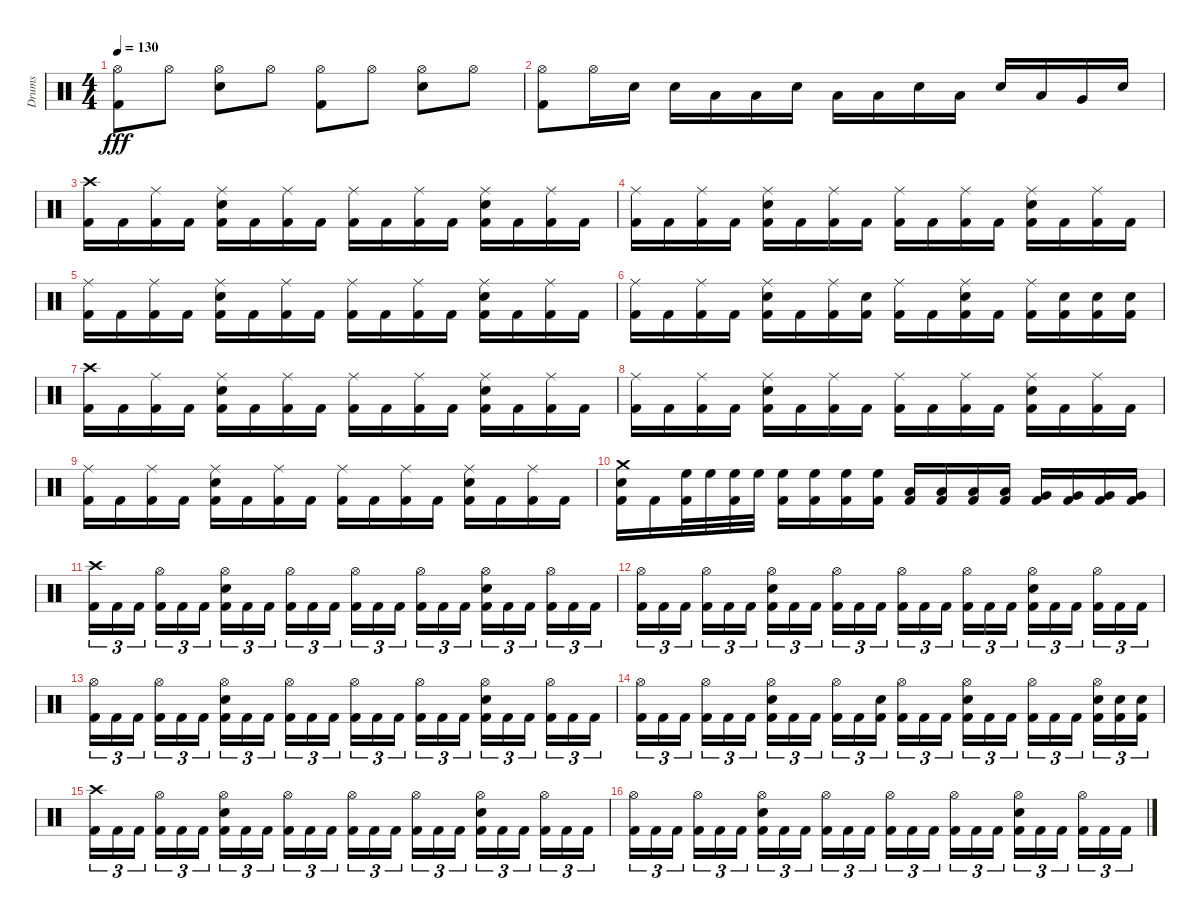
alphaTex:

\track ("Drums" "Drums") {instrument percussion}
\staff {score}
\articulation defaults
\ts (4 4)
\tempo 130
\clef neutral
\ks c
("Hi-Hat (open)" "Kick (hit) 2").8{dy fff} "Hi-Hat (open)".8 ("Hi-Hat (open)" "Snare (hit) 2").8 "Hi-Hat (open)".8 ("Hi-Hat (open)" "Kick (hit) 2").8 "Hi-Hat (open)".8 ("Hi-Hat (open)" "Snare (hit) 2").8 "Hi-Hat (open)".8 |
("Hi-Hat (open)" "Kick (hit) 2").8 "Hi-Hat (open)".16 "Snare (hit) 2".16 "Snare (hit) 2".16 "Low Tom (hit)".16 "Low Tom (hit)".16 "Snare (hit) 2".16 "Low Tom (hit)".16 "Low Tom (hit)".16 "Snare (hit) 2".16 "Low Tom (hit)".16 "Snare (hit) 2".16 "Low Tom (hit)".16 "Very Low Tom (hit)".16 "Snare (hit) 2".16 |
("Kick (hit) 2" "Crash high (hit)").16 "Kick (hit) 2".16 ("Kick (hit) 2" "Ride (middle)").16 "Kick (hit) 2".16 ("Kick (hit) 2" "Ride (middle)" "Snare (hit) 2").16 "Kick (hit) 2".16 ("Kick (hit) 2" "Ride (middle)").16 "Kick (hit) 2".16 ("Kick (hit) 2" "Ride (middle)").16 "Kick (hit) 2".16 ("Kick (hit) 2" "Ride (middle)").16 "Kick (hit) 2".16 ("Kick (hit) 2" "Ride (middle)" "Snare (hit) 2").16 "Kick (hit) 2".16 ("Kick (hit) 2" "Ride (middle)").16 "Kick (hit) 2".16 |
("Kick (hit) 2" "Ride (middle)").16 "Kick (hit) 2".16 ("Kick (hit) 2" "Ride (middle)").16 "Kick (hit) 2".16 ("Kick (hit) 2" "Ride (middle)" "Snare (hit) 2").16 "Kick (hit) 2".16 ("Kick (hit) 2" "Ride (middle)").16 "Kick (hit) 2".16 ("Kick (hit) 2" "Ride (middle)").16 "Kick (hit) 2".16 ("Kick (hit) 2" "Ride (middle)").16 "Kick (hit) 2".16 ("Kick (hit) 2" "Ride (middle)" "Snare (hit) 2").16 "Kick (hit) 2".16 ("Kick (hit) 2" "Ride (middle)").16 "Kick (hit) 2".16 |
("Kick (hit) 2" "Ride (middle)").16 "Kick (hit) 2".16 ("Kick (hit) 2" "Ride (middle)").16 "Kick (hit) 2".16 ("Kick (hit) 2" "Ride (middle)" "Snare (hit) 2").16 "Kick (hit) 2".16 ("Kick (hit) 2" "Ride (middle)").16 "Kick (hit) 2".16 ("Kick (hit) 2" "Ride (middle)").16 "Kick (hit) 2".16 ("Kick (hit) 2" "Ride (middle)").16 "Kick (hit) 2".16 ("Kick (hit) 2" "Ride (middle)" "Snare (hit) 2").16 "Kick (hit) 2".16 ("Kick (hit) 2" "Ride (middle)").16 "Kick (hit) 2".16 |
("Kick (hit) 2" "Ride (middle)").16 "Kick (hit) 2".16 ("Kick (hit) 2" "Ride (middle)").16 "Kick (hit) 2".16 ("Kick (hit) 2" "Ride (middle)" "Snare (hit) 2").16 "Kick (hit) 2".16 ("Kick (hit) 2" "Ride (middle)").16 ("Kick (hit) 2" "Snare (hit) 2").16 ("Kick (hit) 2" "Ride (middle)").16 "Kick (hit) 2".16 ("Kick (hit) 2" "Ride (middle)" "Snare (hit) 2").16 "Kick (hit) 2".16 ("Kick (hit) 2" "Ride (middle)").16 ("Kick (hit) 2" "Snare (hit) 2").16 ("Kick (hit) 2" "Snare (hit) 2").16 ("Kick (hit) 2" "Snare (hit) 2").16 |
("Kick (hit) 2" "Crash high (hit)").16 "Kick (hit) 2".16 ("Kick (hit) 2" "Ride (middle)").16 "Kick (hit) 2".16 ("Kick (hit) 2" "Ride (middle)" "Snare (hit) 2").16 "Kick (hit) 2".16 ("Kick (hit) 2" "Ride (middle)").16 "Kick (hit) 2".16 ("Kick (hit) 2" "Ride (middle)").16 "Kick (hit) 2".16 ("Kick (hit) 2" "Ride (middle)").16 "Kick (hit) 2".16 ("Kick (hit) 2" "Ride (middle)" "Snare (hit) 2").16 "Kick (hit) 2".16 ("Kick (hit) 2" "Ride (middle)").16 "Kick (hit) 2".16 |
("Kick (hit) 2" "Ride (middle)").16 "Kick (hit) 2".16 ("Kick (hit) 2" "Ride (middle)").16 "Kick (hit) 2".16 ("Kick (hit) 2" "Ride (middle)" "Snare (hit) 2").16 "Kick (hit) 2".16 ("Kick (hit) 2" "Ride (middle)").16 "Kick (hit) 2".16 ("Kick (hit) 2" "Ride (middle)").16 "Kick (hit) 2".16 ("Kick (hit) 2" "Ride (middle)").16 "Kick (hit) 2".16 ("Kick (hit) 2" "Ride (middle)" "Snare (hit) 2").16 "Kick (hit) 2".16 ("Kick (hit) 2" "Ride (middle)").16 "Kick (hit) 2".16 |
("Kick (hit) 2" "Ride (middle)").16 "Kick (hit) 2".16 ("Kick (hit) 2" "Ride (middle)").16 "Kick (hit) 2".16 ("Kick (hit) 2" "Ride (middle)" "Snare (hit) 2").16 "Kick (hit) 2".16 ("Kick (hit) 2" "Ride (middle)").16 "Kick (hit) 2".16 ("Kick (hit) 2" "Ride (middle)").16 "Kick (hit) 2".16 ("Kick (hit) 2" "Ride (middle)").16 "Kick (hit) 2".16 ("Kick (hit) 2" "Ride (middle)" "Snare (hit) 2").16 "Kick (hit) 2".16 ("Kick (hit) 2" "Ride (middle)").16 "Kick (hit) 2".16 |
("Kick (hit) 2" "Crash medium (hit)" "Snare (hit) 2").16 "Kick (hit) 2".16 ("Kick (hit) 2" "High Floor Tom (hit)").32 "High Floor Tom (hit)".32 ("Kick (hit) 2" "High Floor Tom (hit)").32 "High Floor Tom (hit)".32 ("Kick (hit) 2" "High Floor Tom (hit)").16 ("Kick (hit) 2" "High Floor Tom (hit)").16 ("Kick (hit) 2" "High Floor Tom (hit)").16 ("Kick (hit) 2" "High Floor Tom (hit)").16 ("Kick (hit) 2" "Low Tom (hit)").16 ("Kick (hit) 2" "Low Tom (hit)").16 ("Kick (hit) 2" "Low Tom (hit)").16 ("Kick (hit) 2" "Low Tom (hit)").16 ("Kick (hit) 2" "Very Low Tom (hit)").16 ("Kick (hit) 2" "Very Low Tom (hit)").16 ("Kick (hit) 2" "Very Low Tom (hit)").16 ("Kick (hit) 2" "Very Low Tom (hit)").16 |
("Kick (hit) 2" "Crash high (hit)").16{tu (3 2)} "Kick (hit) 2".16{tu (3 2)} "Kick (hit) 2".16{tu (3 2) beam splitsecondary} ("Kick (hit) 2" "Hi-Hat (open)").16{tu (3 2)} "Kick (hit) 2".16{tu (3 2)} "Kick (hit) 2".16{tu (3 2)} ("Kick (hit) 2" "Hi-Hat (open)" "Snare (hit) 2").16{tu (3 2)} "Kick (hit) 2".16{tu (3 2)} "Kick (hit) 2".16{tu (3 2) beam splitsecondary} ("Kick (hit) 2" "Hi-Hat (open)").16{tu (3 2)} "Kick (hit) 2".16{tu (3 2)} "Kick (hit) 2".16{tu (3 2)} ("Kick (hit) 2" "Hi-Hat (open)").16{tu (3 2)} "Kick (hit) 2".16{tu (3 2)} "Kick (hit) 2".16{tu (3 2) beam splitsecondary} ("Kick (hit) 2" "Hi-Hat (open)").16{tu (3 2)} "Kick (hit) 2".16{tu (3 2)} "Kick (hit) 2".16{tu (3 2)} ("Kick (hit) 2" "Hi-Hat (open)" "Snare (hit) 2").16{tu (3 2)} "Kick (hit) 2".16{tu (3 2)} "Kick (hit) 2".16{tu (3 2) beam splitsecondary} ("Kick (hit) 2" "Hi-Hat (open)").16{tu (3 2)} "Kick (hit) 2".16{tu (3 2)} "Kick (hit) 2".16{tu (3 2)} |
("Kick (hit) 2" "Hi-Hat (open)").16{tu (3 2)} "Kick (hit) 2".16{tu (3 2)} "Kick (hit) 2".16{tu (3 2) beam splitsecondary} ("Kick (hit) 2" "Hi-Hat (open)").16{tu (3 2)} "Kick (hit) 2".16{tu (3 2)} "Kick (hit) 2".16{tu (3 2)} ("Kick (hit) 2" "Hi-Hat (open)" "Snare (hit) 2").16{tu (3 2)} "Kick (hit) 2".16{tu (3 2)} "Kick (hit) 2".16{tu (3 2) beam splitsecondary} ("Kick (hit) 2" "Hi-Hat (open)").16{tu (3 2)} "Kick (hit) 2".16{tu (3 2)} "Kick (hit) 2".16{tu (3 2)} ("Kick (hit) 2" "Hi-Hat (open)").16{tu (3 2)} "Kick (hit) 2".16{tu (3 2)} "Kick (hit) 2".16{tu (3 2) beam splitsecondary} ("Kick (hit) 2" "Hi-Hat (open)").16{tu (3 2)} "Kick (hit) 2".16{tu (3 2)} "Kick (hit) 2".16{tu (3 2)} ("Kick (hit) 2" "Hi-Hat (open)" "Snare (hit) 2").16{tu (3 2)} "Kick (hit) 2".16{tu (3 2)} "Kick (hit) 2".16{tu (3 2) beam splitsecondary} ("Kick (hit) 2" "Hi-Hat (open)").16{tu (3 2)} "Kick (hit) 2".16{tu (3 2)} "Kick (hit) 2".16{tu (3 2)} |
("Kick (hit) 2" "Hi-Hat (open)").16{tu (3 2)} "Kick (hit) 2".16{tu (3 2)} "Kick (hit) 2".16{tu (3 2) beam splitsecondary} ("Kick (hit) 2" "Hi-Hat (open)").16{tu (3 2)} "Kick (hit) 2".16{tu (3 2)} "Kick (hit) 2".16{tu (3 2)} ("Kick (hit) 2" "Hi-Hat (open)" "Snare (hit) 2").16{tu (3 2)} "Kick (hit) 2".16{tu (3 2)} "Kick (hit) 2".16{tu (3 2) beam splitsecondary} ("Kick (hit) 2" "Hi-Hat (open)").16{tu (3 2)} "Kick (hit) 2".16{tu (3 2)} "Kick (hit) 2".16{tu (3 2)} ("Kick (hit) 2" "Hi-Hat (open)").16{tu (3 2)} "Kick (hit) 2".16{tu (3 2)} "Kick (hit) 2".16{tu (3 2) beam splitsecondary} ("Kick (hit) 2" "Hi-Hat (open)").16{tu (3 2)} "Kick (hit) 2".16{tu (3 2)} "Kick (hit) 2".16{tu (3 2)} ("Kick (hit) 2" "Hi-Hat (open)" "Snare (hit) 2").16{tu (3 2)} "Kick (hit) 2".16{tu (3 2)} "Kick (hit) 2".16{tu (3 2) beam splitsecondary} ("Kick (hit) 2" "Hi-Hat (open)").16{tu (3 2)} "Kick (hit) 2".16{tu (3 2)} "Kick (hit) 2".16{tu (3 2)} |
("Kick (hit) 2" "Hi-Hat (open)").16{tu (3 2)} "Kick (hit) 2".16{tu (3 2)} "Kick (hit) 2".16{tu (3 2) beam splitsecondary} ("Kick (hit) 2" "Hi-Hat (open)").16{tu (3 2)} "Kick (hit) 2".16{tu (3 2)} "Kick (hit) 2".16{tu (3 2)} ("Kick (hit) 2" "Hi-Hat (open)" "Snare (hit) 2").16{tu (3 2)} "Kick (hit) 2".16{tu (3 2)} "Kick (hit) 2".16{tu (3 2) beam splitsecondary} ("Kick (hit) 2" "Hi-Hat (open)").16{tu (3 2)} "Kick (hit) 2".16{tu (3 2)} ("Kick (hit) 2" "Snare (hit) 2").16{tu (3 2)} ("Kick (hit) 2" "Hi-Hat (open)").16{tu (3 2)} "Kick (hit) 2".16{tu (3 2)} "Kick (hit) 2".16{tu (3 2) beam splitsecondary} ("Kick (hit) 2" "Hi-Hat (open)" "Snare (hit) 2").16{tu (3 2)} "Kick (hit) 2".16{tu (3 2)} "Kick (hit) 2".16{tu (3 2)} ("Kick (hit) 2" "Hi-Hat (open)").16{tu (3 2)} "Kick (hit) 2".16{tu (3 2)} "Kick (hit) 2".16{tu (3 2) beam splitsecondary} ("Kick (hit) 2" "Hi-Hat (open)" "Snare (hit) 2").16{tu (3 2)} ("Kick (hit) 2" "Snare (hit) 2").16{tu (3 2)} ("Kick (hit) 2" "Snare (hit) 2").16{tu (3 2)} |
("Kick (hit) 2" "Crash high (hit)").16{tu (3 2)} "Kick (hit) 2".16{tu (3 2)} "Kick (hit) 2".16{tu (3 2) beam splitsecondary} ("Kick (hit) 2" "Hi-Hat (open)").16{tu (3 2)} "Kick (hit) 2".16{tu (3 2)} "Kick (hit) 2".16{tu (3 2)} ("Kick (hit) 2" "Hi-Hat (open)" "Snare (hit) 2").16{tu (3 2)} "Kick (hit) 2".16{tu (3 2)} "Kick (hit) 2".16{tu (3 2) beam splitsecondary} ("Kick (hit) 2" "Hi-Hat (open)").16{tu (3 2)} "Kick (hit) 2".16{tu (3 2)} "Kick (hit) 2".16{tu (3 2)} ("Kick (hit) 2" "Hi-Hat (open)").16{tu (3 2)} "Kick (hit) 2".16{tu (3 2)} "Kick (hit) 2".16{tu (3 2) beam splitsecondary} ("Kick (hit) 2" "Hi-Hat (open)").16{tu (3 2)} "Kick (hit) 2".16{tu (3 2)} "Kick (hit) 2".16{tu (3 2)} ("Kick (hit) 2" "Hi-Hat (open)" "Snare (hit) 2").16{tu (3 2)} "Kick (hit) 2".16{tu (3 2)} "Kick (hit) 2".16{tu (3 2) beam splitsecondary} ("Kick (hit) 2" "Hi-Hat (open)").16{tu (3 2)} "Kick (hit) 2".16{tu (3 2)} "Kick (hit) 2".16{tu (3 2)} |
("Kick (hit) 2" "Hi-Hat (open)").16{tu (3 2)} "Kick (hit) 2".16{tu (3 2)} "Kick (hit) 2".16{tu (3 2) beam splitsecondary} ("Kick (hit) 2" "Hi-Hat (open)").16{tu (3 2)} "Kick (hit) 2".16{tu (3 2)} "Kick (hit) 2".16{tu (3 2)} ("Kick (hit) 2" "Hi-Hat (open)" "Snare (hit) 2").16{tu (3 2)} "Kick (hit) 2".16{tu (3 2)} "Kick (hit) 2".16{tu (3 2) beam splitsecondary} ("Kick (hit) 2" "Hi-Hat (open)").16{tu (3 2)} "Kick (hit) 2".16{tu (3 2)} "Kick (hit) 2".16{tu (3 2)} ("Kick (hit) 2" "Hi-Hat (open)").16{tu (3 2)} "Kick (hit) 2".16{tu (3 2)} "Kick (hit) 2".16{tu (3 2) beam splitsecondary} ("Kick (hit) 2" "Hi-Hat (open)").16{tu (3 2)} "Kick (hit) 2".16{tu (3 2)} "Kick (hit) 2".16{tu (3 2)} ("Kick (hit) 2" "Hi-Hat (open)" "Snare (hit) 2").16{tu (3 2)} "Kick (hit) 2".16{tu (3 2)} "Kick (hit) 2".16{tu (3 2) beam splitsecondary} ("Kick (hit) 2" "Hi-Hat (open)").16{tu (3 2)} "Kick (hit) 2".16{tu (3 2)} "Kick (hit) 2".16{tu (3 2)}
